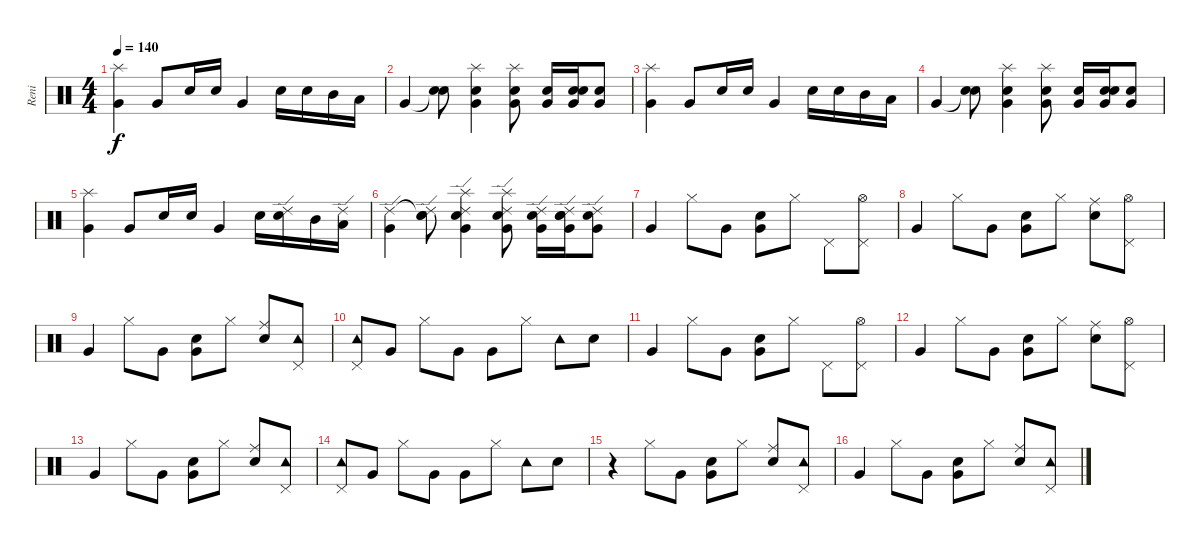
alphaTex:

\track ("Reni" "Reni") {instrument percussion}
\staff {score}
\articulation defaults
\ts (4 4)
\tempo 140
\clef neutral
\ks c
("Splash (hit)" "Very Low Tom (hit)").4{dy f} "Very Low Tom (hit)".8 "Electric Snare (hit)".16 "Snare (hit) 2".16 "Very Low Tom (hit)".4 "Snare (hit) 2".16 "Electric Snare (hit)".16 "Mid Tom (hit)".16 "Low Tom (hit)".16 |
"Very Low Tom (hit)".4 ("Snare (hit)"{t} "Snare (hit) 2").8 ("Splash (hit)" "Electric Snare (hit)" "Very Low Tom (hit)").4 ("Splash (hit)" "Electric Snare (hit)" "Very Low Tom (hit)").8 ("Snare (hit) 2" "Very Low Tom (hit)").16 ("Electric Snare (hit)" "Electric Snare (hit)" "Very Low Tom (hit)").16 ("Electric Snare (hit)" "Very Low Tom (hit)").8 |
("Splash (hit)" "Very Low Tom (hit)").4 "Very Low Tom (hit)".8 "Electric Snare (hit)".16 "Snare (hit) 2".16 "Very Low Tom (hit)".4 "Snare (hit) 2".16 "Electric Snare (hit)".16 "Mid Tom (hit)".16 "Low Tom (hit)".16 |
"Very Low Tom (hit)".4 ("Snare (hit)"{t} "Snare (hit) 2").8 ("Splash (hit)" "Electric Snare (hit)" "Very Low Tom (hit)").4 ("Splash (hit)" "Electric Snare (hit)" "Very Low Tom (hit)").8 ("Snare (hit) 2" "Very Low Tom (hit)").16 ("Electric Snare (hit)" "Electric Snare (hit)" "Very Low Tom (hit)").16 ("Electric Snare (hit)" "Very Low Tom (hit)").8 |
("Splash (hit)" "Very Low Tom (hit)").4 "Very Low Tom (hit)".8 "Electric Snare (hit)".16 "Snare (hit) 2".16 "Very Low Tom (hit)".4 "Snare (hit) 2".16 ("Ride (edge) 2" "Electric Snare (hit)").16 "Mid Tom (hit)".16 ("Ride (edge) 2" "Low Tom (hit)").16 |
("Ride (edge) 2" "Very Low Tom (hit)").4 ("Snare (hit)"{t} "Ride (edge) 2" "Snare (hit) 2").8 ("Splash (hit)" "Ride (edge) 2" "Electric Snare (hit)" "Very Low Tom (hit)").4 ("Splash (hit)" "Ride (edge) 2" "Electric Snare (hit)" "Very Low Tom (hit)").8 ("Ride (edge) 2" "Snare (hit) 2" "Very Low Tom (hit)").16 ("Ride (edge) 2" "Electric Snare (hit)" "Electric Snare (hit)" "Very Low Tom (hit)").16 ("Ride (edge) 2" "Electric Snare (hit)" "Very Low Tom (hit)").8 |
"Very Low Tom (hit)".4 "Hi-Hat (closed)".8 "Very Low Tom (hit)".8 ("Snare (hit) 2" "Very Low Tom (hit)").8 "Hi-Hat (closed)".8 "Pedal Hi-Hat (hit)".8 ("Hi-Hat (open)" "Pedal Hi-Hat (hit)").8 |
"Very Low Tom (hit)".4 "Hi-Hat (closed)".8 "Very Low Tom (hit)".8 ("Snare (hit) 2" "Very Low Tom (hit)").8 "Hi-Hat (closed)".8 ("Ride (middle)" "Snare (hit) 2").8 ("Hi-Hat (open)" "Pedal Hi-Hat (hit)").8 |
"Very Low Tom (hit)".4 "Hi-Hat (closed)".8 "Very Low Tom (hit)".8 ("Snare (hit) 2" "Very Low Tom (hit)").8 "Hi-Hat (closed)".8 ("Ride (middle)" "Snare (hit) 2").8 ("Tambourine (hit)" "Pedal Hi-Hat (hit)").8 |
("Tambourine (hit)" "Pedal Hi-Hat (hit)").8 "Very Low Tom (hit)".8 "Hi-Hat (closed)".8 "Very Low Tom (hit)".8 "Very Low Tom (hit)".8 "Hi-Hat (closed)".8 "Tambourine (hit)".8 "Snare (hit) 2".8 |
"Very Low Tom (hit)".4 "Hi-Hat (closed)".8 "Very Low Tom (hit)".8 ("Snare (hit) 2" "Very Low Tom (hit)").8 "Hi-Hat (closed)".8 "Pedal Hi-Hat (hit)".8 ("Hi-Hat (open)" "Pedal Hi-Hat (hit)").8 |
"Very Low Tom (hit)".4 "Hi-Hat (closed)".8 "Very Low Tom (hit)".8 ("Snare (hit) 2" "Very Low Tom (hit)").8 "Hi-Hat (closed)".8 ("Ride (middle)" "Snare (hit) 2").8 ("Hi-Hat (open)" "Pedal Hi-Hat (hit)").8 |
"Very Low Tom (hit)".4 "Hi-Hat (closed)".8 "Very Low Tom (hit)".8 ("Snare (hit) 2" "Very Low Tom (hit)").8 "Hi-Hat (closed)".8 ("Ride (middle)" "Snare (hit) 2").8 ("Tambourine (hit)" "Pedal Hi-Hat (hit)").8 |
("Tambourine (hit)" "Pedal Hi-Hat (hit)").8 "Very Low Tom (hit)".8 "Hi-Hat (closed)".8 "Very Low Tom (hit)".8 "Very Low Tom (hit)".8 "Hi-Hat (closed)".8 "Tambourine (hit)".8 "Snare (hit) 2".8 |
r.4 "Hi-Hat (closed)".8 "Very Low Tom (hit)".8 ("Snare (hit) 2" "Very Low Tom (hit)").8 "Hi-Hat (closed)".8 ("Ride (middle)" "Snare (hit) 2").8 ("Tambourine (hit)" "Pedal Hi-Hat (hit)").8 |
"Very Low Tom (hit)".4 "Hi-Hat (closed)".8 "Very Low Tom (hit)".8 ("Snare (hit) 2" "Very Low Tom (hit)").8 "Hi-Hat (closed)".8 ("Ride (middle)" "Snare (hit) 2").8 ("Tambourine (hit)" "Pedal Hi-Hat (hit)").8
